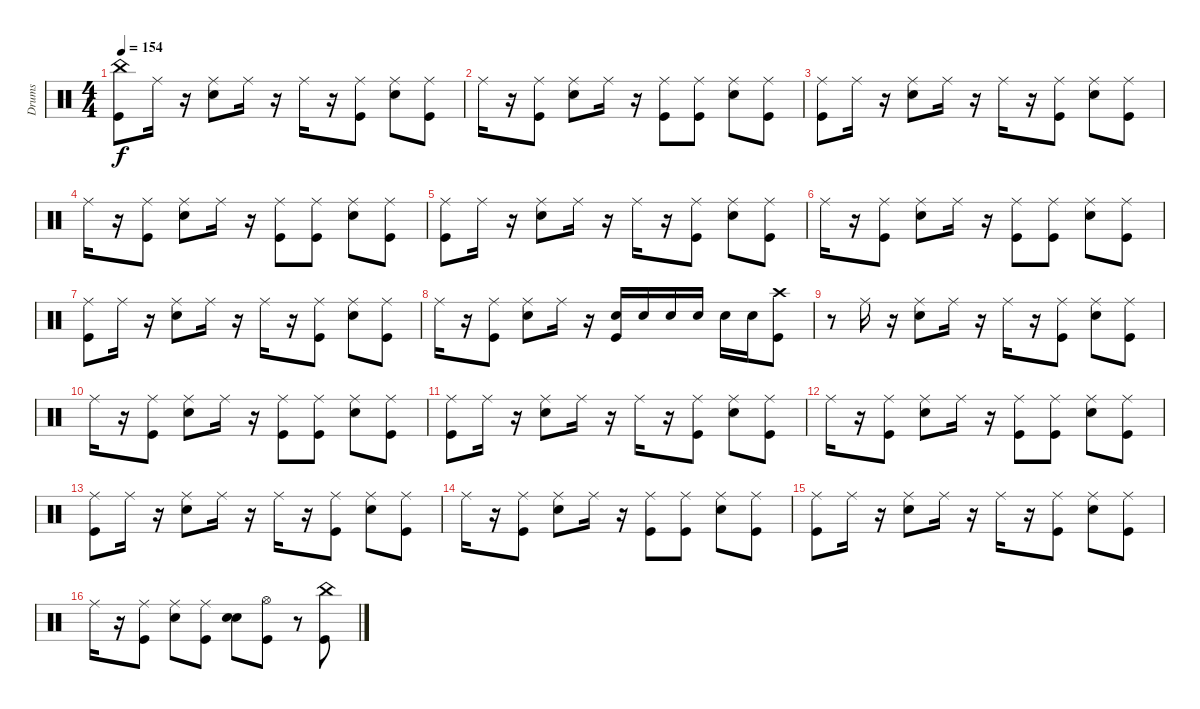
\track ("Drums" "Drums") {instrument percussion}
\staff {score}
\articulation defaults
\ts (4 4)
\tempo 154
\clef neutral
\ks c
("China (hit)" "Kick (hit)").8{dy f} "Ride (middle)".16 r.16 ("Ride (middle)" "Snare (hit) 2").8 "Ride (middle)".16 r.16 "Ride (middle)".16 r.16 ("Kick (hit)" "Ride (middle)").8 ("Ride (middle)" "Snare (hit) 2").8 ("Kick (hit)" "Ride (middle)").8 |
"Ride (middle)".16 r.16 ("Ride (middle)" "Kick (hit)").8 ("Snare (hit) 2" "Ride (middle)").8 "Ride (middle)".16 r.16 ("Kick (hit)" "Ride (middle)").8 ("Ride (middle)" "Kick (hit)").8 ("Snare (hit) 2" "Ride (middle)").8 ("Ride (middle)" "Kick (hit)").8 |
("Kick (hit)" "Ride (middle)").8 "Ride (middle)".16 r.16 ("Snare (hit) 2" "Ride (middle)").8 "Ride (middle)".16 r.16 "Ride (middle)".16 r.16 ("Ride (middle)" "Kick (hit)").8 ("Ride (middle)" "Snare (hit) 2").8 ("Kick (hit)" "Ride (middle)").8 |
"Ride (middle)".16 r.16 ("Kick (hit)" "Ride (middle)").8 ("Ride (middle)" "Snare (hit) 2").8 "Ride (middle)".16 r.16 ("Ride (middle)" "Kick (hit)").8 ("Kick (hit)" "Ride (middle)").8 ("Ride (middle)" "Snare (hit) 2").8 ("Kick (hit)" "Ride (middle)").8 |
("Ride (middle)" "Kick (hit)").8 "Ride (middle)".16 r.16 ("Ride (middle)" "Snare (hit) 2").8 "Ride (middle)".16 r.16 "Ride (middle)".16 r.16 ("Kick (hit)" "Ride (middle)").8 ("Ride (middle)" "Snare (hit) 2").8 ("Kick (hit)" "Ride (middle)").8 |
"Ride (middle)".16 r.16 ("Kick (hit)" "Ride (middle)").8 ("Ride (middle)" "Snare (hit) 2").8 "Ride (middle)".16 r.16 ("Ride (middle)" "Kick (hit)").8 ("Kick (hit)" "Ride (middle)").8 ("Ride (middle)" "Snare (hit) 2").8 ("Kick (hit)" "Ride (middle)").8 |
("Ride (middle)" "Kick (hit)").8 "Ride (middle)".16 r.16 ("Ride (middle)" "Snare (hit) 2").8 "Ride (middle)".16 r.16 "Ride (middle)".16 r.16 ("Kick (hit)" "Ride (middle)").8 ("Ride (middle)" "Snare (hit) 2").8 ("Kick (hit)" "Ride (middle)").8 |
"Ride (middle)".16 r.16 ("Kick (hit)" "Ride (middle)").8 ("Snare (hit) 2" "Ride (middle)").8 "Ride (middle)".16 r.16 ("Snare (hit) 2" "Kick (hit)").16 "Snare (hit) 2".16 "Snare (hit) 2".16 "Snare (hit) 2".16 "Snare (hit) 2".16 "Snare (hit) 2".16 ("Crash high (hit)" "Kick (hit)").8 |
r.8 "Ride (middle)".16 r.16 ("Ride (middle)" "Snare (hit) 2").8 "Ride (middle)".16 r.16 "Ride (middle)".16 r.16 ("Kick (hit)" "Ride (middle)").8 ("Ride (middle)" "Snare (hit) 2").8 ("Kick (hit)" "Ride (middle)").8 |
"Ride (middle)".16 r.16 ("Ride (middle)" "Kick (hit)").8 ("Snare (hit) 2" "Ride (middle)").8 "Ride (middle)".16 r.16 ("Kick (hit)" "Ride (middle)").8 ("Ride (middle)" "Kick (hit)").8 ("Snare (hit) 2" "Ride (middle)").8 ("Ride (middle)" "Kick (hit)").8 |
("Kick (hit)" "Ride (middle)").8 "Ride (middle)".16 r.16 ("Snare (hit) 2" "Ride (middle)").8 "Ride (middle)".16 r.16 "Ride (middle)".16 r.16 ("Ride (middle)" "Kick (hit)").8 ("Ride (middle)" "Snare (hit) 2").8 ("Kick (hit)" "Ride (middle)").8 |
"Ride (middle)".16 r.16 ("Kick (hit)" "Ride (middle)").8 ("Ride (middle)" "Snare (hit) 2").8 "Ride (middle)".16 r.16 ("Ride (middle)" "Kick (hit)").8 ("Kick (hit)" "Ride (middle)").8 ("Ride (middle)" "Snare (hit) 2").8 ("Kick (hit)" "Ride (middle)").8 |
("Ride (middle)" "Kick (hit)").8 "Ride (middle)".16 r.16 ("Ride (middle)" "Snare (hit) 2").8 "Ride (middle)".16 r.16 "Ride (middle)".16 r.16 ("Kick (hit)" "Ride (middle)").8 ("Ride (middle)" "Snare (hit) 2").8 ("Kick (hit)" "Ride (middle)").8 |
"Ride (middle)".16 r.16 ("Kick (hit)" "Ride (middle)").8 ("Ride (middle)" "Snare (hit) 2").8 "Ride (middle)".16 r.16 ("Ride (middle)" "Kick (hit)").8 ("Kick (hit)" "Ride (middle)").8 ("Ride (middle)" "Snare (hit) 2").8 ("Kick (hit)" "Ride (middle)").8 |
("Ride (middle)" "Kick (hit)").8 "Ride (middle)".16 r.16 ("Ride (middle)" "Snare (hit) 2").8 "Ride (middle)".16 r.16 "Ride (middle)".16 r.16 ("Kick (hit)" "Ride (middle)").8 ("Ride (middle)" "Snare (hit) 2").8 ("Kick (hit)" "Ride (middle)").8 |
"Ride (middle)".16 r.16 ("Kick (hit)" "Ride (middle)").8 ("Snare (hit) 2" "Ride (middle)").8 ("Kick (hit)" "Ride (middle)").8 ("Snare (hit) 2" "Snare (hit) 2").8 ("Kick (hit)" "Hi-Hat (open)").8 r.8 ("China (hit)" "Kick (hit)").8
